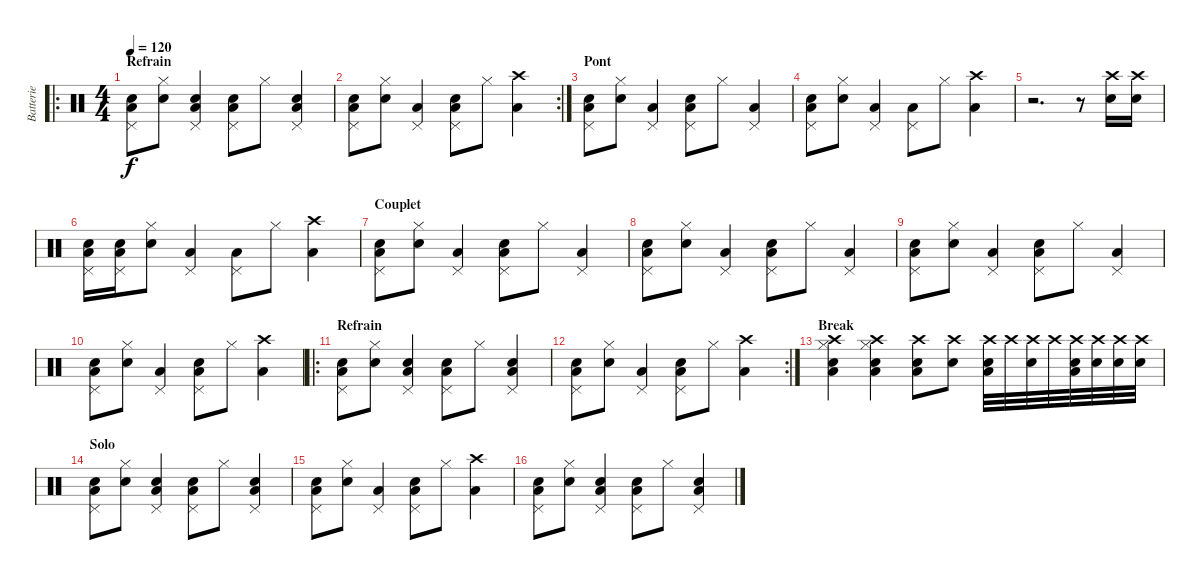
\track ("Batterie" "Batterie") {instrument percussion}
\staff {score}
\articulation defaults
\ro
\ts (4 4)
\section ("" "Refrain")
\tempo 120
\clef neutral
\ks c
("Pedal Hi-Hat (hit)" "Low Tom (hit)" "Snare (hit) 2").8{dy f} ("Hi-Hat (closed)" "Snare (hit) 2").8 ("Pedal Hi-Hat (hit)" "Low Tom (hit)" "Electric Snare (hit)").4 ("Pedal Hi-Hat (hit)" "Low Tom (hit)" "Snare (hit) 2").8 "Hi-Hat (closed)".8 ("Pedal Hi-Hat (hit)" "Low Tom (hit)" "Electric Snare (hit)").4 |
\rc 2
("Pedal Hi-Hat (hit)" "Low Tom (hit)" "Snare (hit) 2").8 ("Hi-Hat (closed)" "Snare (hit) 2").8 ("Pedal Hi-Hat (hit)" "Low Tom (hit)").4 ("Pedal Hi-Hat (hit)" "Low Tom (hit)" "Snare (hit) 2").8 "Hi-Hat (closed)".8 ("Low Tom (hit)" "Crash high (hit)").4 |
\section ("" "Pont")
("Pedal Hi-Hat (hit)" "Low Tom (hit)" "Snare (hit) 2").8 ("Hi-Hat (closed)" "Snare (hit) 2").8 ("Pedal Hi-Hat (hit)" "Low Tom (hit)").4 ("Pedal Hi-Hat (hit)" "Low Tom (hit)" "Snare (hit) 2").8 "Hi-Hat (closed)".8 ("Pedal Hi-Hat (hit)" "Low Tom (hit)").4 |
("Pedal Hi-Hat (hit)" "Low Tom (hit)" "Snare (hit) 2").8 ("Hi-Hat (closed)" "Snare (hit) 2").8 ("Pedal Hi-Hat (hit)" "Low Tom (hit)").4 ("Pedal Hi-Hat (hit)" "Low Tom (hit)").8 "Hi-Hat (closed)".8 ("Low Tom (hit)" "Crash high (hit)").4 |
r.2{d} r.8 ("Crash high (hit)" "Snare (hit) 2").16 ("Crash high (hit)" "Snare (hit) 2").16 |
("Pedal Hi-Hat (hit)" "Low Tom (hit)" "Snare (hit) 2").16 ("Pedal Hi-Hat (hit)" "Low Tom (hit)" "Snare (hit) 2").16 ("Hi-Hat (closed)" "Snare (hit) 2").8 ("Pedal Hi-Hat (hit)" "Low Tom (hit)").4 ("Pedal Hi-Hat (hit)" "Low Tom (hit)").8 "Hi-Hat (closed)".8 ("Low Tom (hit)" "Crash high (hit)").4 |
\section ("" "Couplet")
("Pedal Hi-Hat (hit)" "Low Tom (hit)" "Snare (hit) 2").8 ("Hi-Hat (closed)" "Snare (hit) 2").8 ("Pedal Hi-Hat (hit)" "Low Tom (hit)").4 ("Pedal Hi-Hat (hit)" "Low Tom (hit)" "Snare (hit) 2").8 "Hi-Hat (closed)".8 ("Pedal Hi-Hat (hit)" "Low Tom (hit)").4 |
("Pedal Hi-Hat (hit)" "Low Tom (hit)" "Snare (hit) 2").8 ("Hi-Hat (closed)" "Snare (hit) 2").8 ("Pedal Hi-Hat (hit)" "Low Tom (hit)").4 ("Pedal Hi-Hat (hit)" "Low Tom (hit)" "Snare (hit) 2").8 "Hi-Hat (closed)".8 ("Pedal Hi-Hat (hit)" "Low Tom (hit)").4 |
("Pedal Hi-Hat (hit)" "Low Tom (hit)" "Snare (hit) 2").8 ("Hi-Hat (closed)" "Snare (hit) 2").8 ("Pedal Hi-Hat (hit)" "Low Tom (hit)").4 ("Pedal Hi-Hat (hit)" "Low Tom (hit)" "Snare (hit) 2").8 "Hi-Hat (closed)".8 ("Pedal Hi-Hat (hit)" "Low Tom (hit)").4 |
("Pedal Hi-Hat (hit)" "Low Tom (hit)" "Snare (hit) 2").8 ("Hi-Hat (closed)" "Snare (hit) 2").8 ("Pedal Hi-Hat (hit)" "Low Tom (hit)").4 ("Pedal Hi-Hat (hit)" "Low Tom (hit)" "Snare (hit) 2").8 "Hi-Hat (closed)".8 ("Low Tom (hit)" "Crash high (hit)").4 |
\ro
\section ("" "Refrain")
("Pedal Hi-Hat (hit)" "Low Tom (hit)" "Snare (hit) 2").8 ("Hi-Hat (closed)" "Snare (hit) 2").8 ("Pedal Hi-Hat (hit)" "Low Tom (hit)" "Electric Snare (hit)").4 ("Pedal Hi-Hat (hit)" "Low Tom (hit)" "Snare (hit) 2").8 "Hi-Hat (closed)".8 ("Pedal Hi-Hat (hit)" "Low Tom (hit)" "Electric Snare (hit)").4 |
\rc 2
("Pedal Hi-Hat (hit)" "Low Tom (hit)" "Snare (hit) 2").8 ("Hi-Hat (closed)" "Snare (hit) 2").8 ("Pedal Hi-Hat (hit)" "Low Tom (hit)").4 ("Pedal Hi-Hat (hit)" "Low Tom (hit)" "Snare (hit) 2").8 "Hi-Hat (closed)".8 ("Low Tom (hit)" "Crash high (hit)").4 |
\section ("" "Break")
("Crash high (hit)" "Low Tom (hit)" "Snare (hit) 2" "Hi-Hat (closed)").4 ("Crash high (hit)" "Low Tom (hit)" "Snare (hit) 2" "Hi-Hat (closed)").4 ("Crash high (hit)" "Low Tom (hit)" "Snare (hit) 2").8 ("Crash high (hit)" "Snare (hit) 2").8 ("Crash high (hit)" "Low Tom (hit)" "Snare (hit) 2").32 "Crash high (hit)".32 ("Crash high (hit)" "Snare (hit) 2").32 "Crash high (hit)".32 ("Crash high (hit)" "Low Tom (hit)" "Snare (hit) 2").32 ("Crash high (hit)" "Snare (hit) 2").32 ("Crash high (hit)" "Snare (hit) 2").32 ("Crash high (hit)" "Snare (hit) 2").32 |
\section ("" "Solo")
("Pedal Hi-Hat (hit)" "Low Tom (hit)" "Snare (hit) 2").8 ("Hi-Hat (closed)" "Snare (hit) 2").8 ("Pedal Hi-Hat (hit)" "Low Tom (hit)" "Electric Snare (hit)").4 ("Pedal Hi-Hat (hit)" "Low Tom (hit)" "Snare (hit) 2").8 "Hi-Hat (closed)".8 ("Pedal Hi-Hat (hit)" "Low Tom (hit)" "Electric Snare (hit)").4 |
("Pedal Hi-Hat (hit)" "Low Tom (hit)" "Snare (hit) 2").8 ("Hi-Hat (closed)" "Snare (hit) 2").8 ("Pedal Hi-Hat (hit)" "Low Tom (hit)").4 ("Pedal Hi-Hat (hit)" "Low Tom (hit)" "Snare (hit) 2").8 "Hi-Hat (closed)".8 ("Low Tom (hit)" "Crash high (hit)").4 |
("Pedal Hi-Hat (hit)" "Low Tom (hit)" "Snare (hit) 2").8 ("Hi-Hat (closed)" "Snare (hit) 2").8 ("Pedal Hi-Hat (hit)" "Low Tom (hit)" "Electric Snare (hit)").4 ("Pedal Hi-Hat (hit)" "Low Tom (hit)" "Snare (hit) 2").8 "Hi-Hat (closed)".8 ("Pedal Hi-Hat (hit)" "Low Tom (hit)" "Electric Snare (hit)").4
